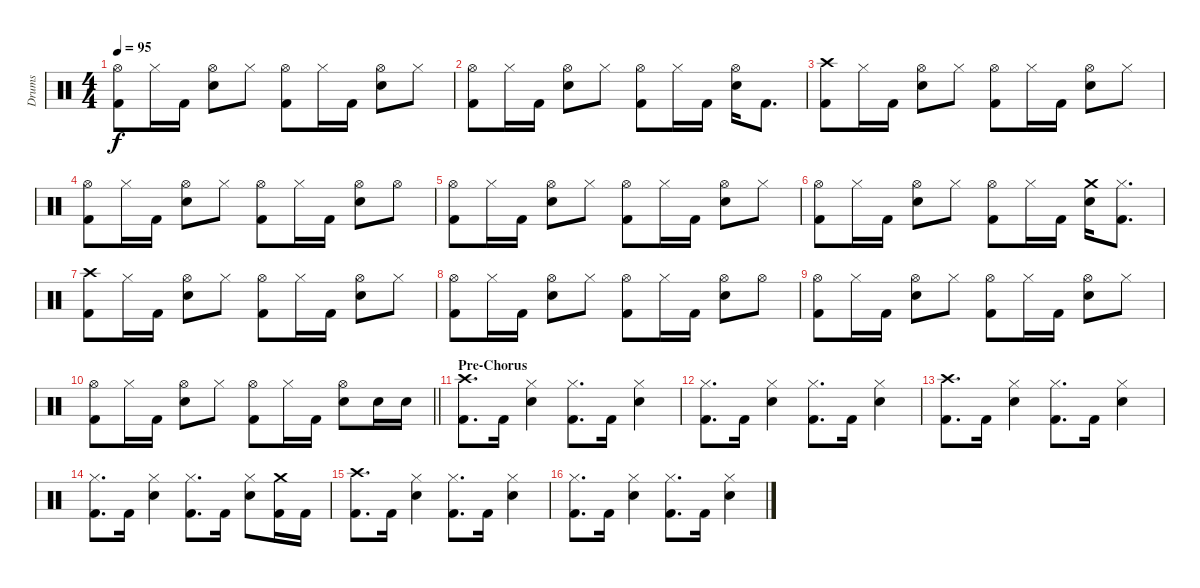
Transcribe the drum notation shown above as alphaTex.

\track ("Drums" "Drums") {instrument percussion}
\staff {score}
\articulation defaults
\ts (4 4)
\tempo 95
\clef neutral
\ks c
("Hi-Hat (open)" "Kick (hit) 2").8{dy f} "Hi-Hat (closed)".16 "Kick (hit) 2".16 ("Hi-Hat (open)" "Snare (hit) 2").8 "Hi-Hat (closed)".8 ("Hi-Hat (open)" "Kick (hit) 2").8 "Hi-Hat (closed)".16 "Kick (hit) 2".16 ("Hi-Hat (open)" "Snare (hit) 2").8 "Hi-Hat (closed)".8 |
("Hi-Hat (open)" "Kick (hit) 2").8 "Hi-Hat (closed)".16 "Kick (hit) 2".16 ("Hi-Hat (open)" "Snare (hit) 2").8 "Hi-Hat (closed)".8 ("Hi-Hat (open)" "Kick (hit) 2").8 "Hi-Hat (closed)".16 "Kick (hit) 2".16 ("Hi-Hat (open)" "Snare (hit) 2").16 "Kick (hit) 2".8{d} |
("Crash high (hit)" "Kick (hit) 2").8 "Hi-Hat (closed)".16 "Kick (hit) 2".16 ("Hi-Hat (open)" "Snare (hit) 2").8 "Hi-Hat (closed)".8 ("Hi-Hat (open)" "Kick (hit) 2").8 "Hi-Hat (closed)".16 "Kick (hit) 2".16 ("Hi-Hat (open)" "Snare (hit) 2").8 "Hi-Hat (closed)".8 |
("Hi-Hat (open)" "Kick (hit) 2").8 "Hi-Hat (closed)".16 "Kick (hit) 2".16 ("Hi-Hat (open)" "Snare (hit) 2").8 "Hi-Hat (closed)".8 ("Hi-Hat (open)" "Kick (hit) 2").8 "Hi-Hat (closed)".16 "Kick (hit) 2".16 ("Hi-Hat (open)" "Snare (hit) 2").8 "Hi-Hat (open)".8 |
("Hi-Hat (open)" "Kick (hit) 2").8 "Hi-Hat (closed)".16 "Kick (hit) 2".16 ("Hi-Hat (open)" "Snare (hit) 2").8 "Hi-Hat (closed)".8 ("Hi-Hat (open)" "Kick (hit) 2").8 "Hi-Hat (closed)".16 "Kick (hit) 2".16 ("Hi-Hat (open)" "Snare (hit) 2").8 "Hi-Hat (closed)".8 |
("Hi-Hat (open)" "Kick (hit) 2").8 "Hi-Hat (closed)".16 "Kick (hit) 2".16 ("Hi-Hat (open)" "Snare (hit) 2").8 "Hi-Hat (closed)".8 ("Hi-Hat (open)" "Kick (hit) 2").8 "Hi-Hat (closed)".16 "Kick (hit) 2".16 ("Crash medium (hit)" "Snare (hit) 2").16 ("Hi-Hat (closed)" "Kick (hit) 2").8{d} |
("Crash high (hit)" "Kick (hit) 2").8 "Hi-Hat (closed)".16 "Kick (hit) 2".16 ("Hi-Hat (open)" "Snare (hit) 2").8 "Hi-Hat (closed)".8 ("Hi-Hat (open)" "Kick (hit) 2").8 "Hi-Hat (closed)".16 "Kick (hit) 2".16 ("Hi-Hat (open)" "Snare (hit) 2").8 "Hi-Hat (closed)".8 |
("Hi-Hat (open)" "Kick (hit) 2").8 "Hi-Hat (closed)".16 "Kick (hit) 2".16 ("Hi-Hat (open)" "Snare (hit) 2").8 "Hi-Hat (closed)".8 ("Hi-Hat (open)" "Kick (hit) 2").8 "Hi-Hat (closed)".16 "Kick (hit) 2".16 ("Hi-Hat (open)" "Snare (hit) 2").8 "Hi-Hat (open)".8 |
("Hi-Hat (open)" "Kick (hit) 2").8 "Hi-Hat (closed)".16 "Kick (hit) 2".16 ("Hi-Hat (open)" "Snare (hit) 2").8 "Hi-Hat (closed)".8 ("Hi-Hat (open)" "Kick (hit) 2").8 "Hi-Hat (closed)".16 "Kick (hit) 2".16 ("Hi-Hat (open)" "Snare (hit) 2").8 "Hi-Hat (closed)".8 |
\barLineRight lightlight
("Hi-Hat (open)" "Kick (hit) 2").8 "Hi-Hat (closed)".16 "Kick (hit) 2".16 ("Hi-Hat (open)" "Snare (hit) 2").8 "Hi-Hat (closed)".8 ("Hi-Hat (open)" "Kick (hit) 2").8 "Hi-Hat (closed)".16 "Kick (hit) 2".16 ("Hi-Hat (open)" "Snare (hit) 2").8 "Snare (hit) 2".16 "Snare (hit) 2".16 |
\section ("" "Pre-Chorus")
("Crash high (hit)" "Kick (hit) 2").8{d} "Kick (hit) 2".16 ("Hi-Hat (closed)" "Snare (hit) 2").4 ("Hi-Hat (closed)" "Kick (hit) 2").8{d} "Kick (hit) 2".16 ("Hi-Hat (closed)" "Snare (hit) 2").4 |
("Hi-Hat (closed)" "Kick (hit) 2").8{d} "Kick (hit) 2".16 ("Hi-Hat (closed)" "Snare (hit) 2").4 ("Hi-Hat (closed)" "Kick (hit) 2").8{d} "Kick (hit) 2".16 ("Hi-Hat (closed)" "Snare (hit) 2").4 |
("Crash high (hit)" "Kick (hit) 2").8{d} "Kick (hit) 2".16 ("Hi-Hat (closed)" "Snare (hit) 2").4 ("Hi-Hat (closed)" "Kick (hit) 2").8{d} "Kick (hit) 2".16 ("Hi-Hat (closed)" "Snare (hit) 2").4 |
("Hi-Hat (closed)" "Kick (hit) 2").8{d} "Kick (hit) 2".16 ("Hi-Hat (closed)" "Snare (hit) 2").4 ("Hi-Hat (closed)" "Kick (hit) 2").8{d} "Kick (hit) 2".16 ("Hi-Hat (closed)" "Snare (hit) 2").8 ("Crash medium (hit)" "Kick (hit) 2").16 "Kick (hit) 2".16 |
("Crash high (hit)" "Kick (hit) 2").8{d} "Kick (hit) 2".16 ("Hi-Hat (closed)" "Snare (hit) 2").4 ("Hi-Hat (closed)" "Kick (hit) 2").8{d} "Kick (hit) 2".16 ("Hi-Hat (closed)" "Snare (hit) 2").4 |
("Hi-Hat (closed)" "Kick (hit) 2").8{d} "Kick (hit) 2".16 ("Hi-Hat (closed)" "Snare (hit) 2").4 ("Hi-Hat (closed)" "Kick (hit) 2").8{d} "Kick (hit) 2".16 ("Hi-Hat (closed)" "Snare (hit) 2").4
